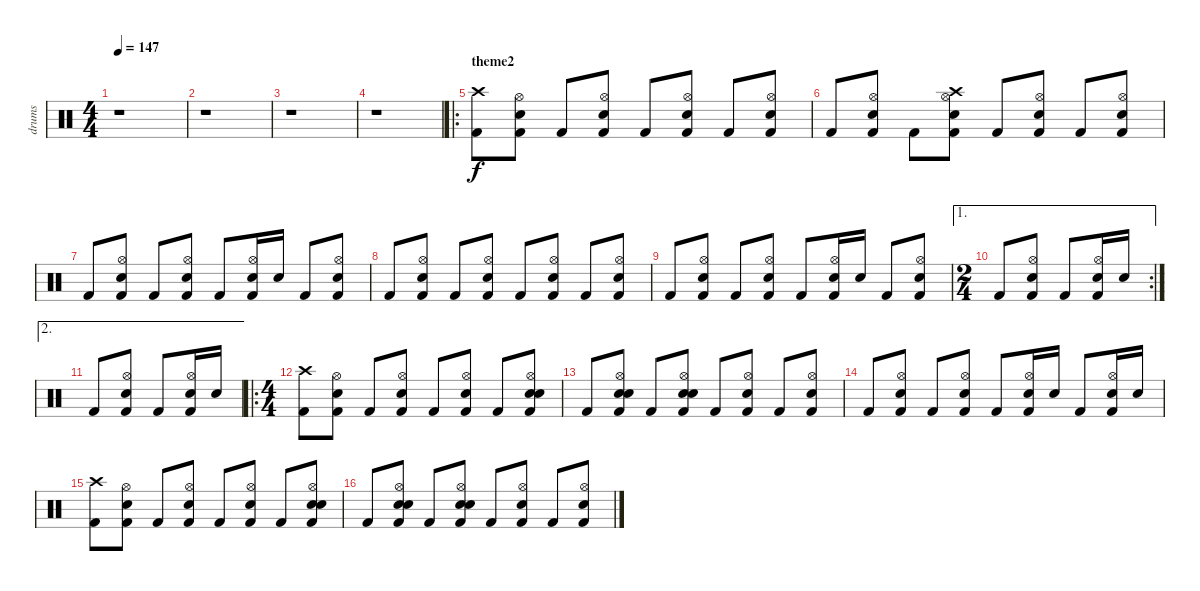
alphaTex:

\track ("drums" "drums") {instrument percussion}
\staff {score}
\articulation defaults
\ts (4 4)
\tempo 147
\clef neutral
\ks c
r.1{dy f} |
r.1 |
r.1 |
r.1 |
\ro
\section ("" "theme2")
("Crash high (hit)" "Kick (hit) 2").8{volume 16} ("Hi-Hat (open)" "Snare (hit) 2" "Kick (hit) 2").8 "Kick (hit) 2".8 ("Hi-Hat (open)" "Snare (hit) 2" "Kick (hit) 2").8 "Kick (hit) 2".8 ("Hi-Hat (open)" "Snare (hit) 2" "Kick (hit) 2").8 "Kick (hit) 2".8 ("Hi-Hat (open)" "Snare (hit) 2" "Kick (hit) 2").8 |
"Kick (hit) 2".8 ("Hi-Hat (open)" "Snare (hit) 2" "Kick (hit) 2").8 "Kick (hit) 2".8 ("Hi-Hat (open)" "Crash high (hit)" "Snare (hit) 2" "Kick (hit) 2").8 "Kick (hit) 2".8 ("Hi-Hat (open)" "Snare (hit) 2" "Kick (hit) 2").8 "Kick (hit) 2".8 ("Hi-Hat (open)" "Snare (hit) 2" "Kick (hit) 2").8 |
"Kick (hit) 2".8 ("Hi-Hat (open)" "Snare (hit) 2" "Kick (hit) 2").8 "Kick (hit) 2".8 ("Hi-Hat (open)" "Snare (hit) 2" "Kick (hit) 2").8 "Kick (hit) 2".8 ("Hi-Hat (open)" "Snare (hit) 2" "Kick (hit) 2").16 "Snare (hit) 2".16 "Kick (hit) 2".8 ("Hi-Hat (open)" "Snare (hit) 2" "Kick (hit) 2").8 |
"Kick (hit) 2".8 ("Hi-Hat (open)" "Snare (hit) 2" "Kick (hit) 2").8 "Kick (hit) 2".8 ("Hi-Hat (open)" "Snare (hit) 2" "Kick (hit) 2").8 "Kick (hit) 2".8 ("Hi-Hat (open)" "Snare (hit) 2" "Kick (hit) 2").8 "Kick (hit) 2".8 ("Hi-Hat (open)" "Snare (hit) 2" "Kick (hit) 2").8 |
"Kick (hit) 2".8 ("Hi-Hat (open)" "Snare (hit) 2" "Kick (hit) 2").8 "Kick (hit) 2".8 ("Hi-Hat (open)" "Snare (hit) 2" "Kick (hit) 2").8 "Kick (hit) 2".8 ("Hi-Hat (open)" "Snare (hit) 2" "Kick (hit) 2").16 "Snare (hit) 2".16 "Kick (hit) 2".8 ("Hi-Hat (open)" "Snare (hit) 2" "Kick (hit) 2").8 |
\ae 1
\rc 2
\ts (2 4)
"Kick (hit) 2".8 ("Hi-Hat (open)" "Snare (hit) 2" "Kick (hit) 2").8 "Kick (hit) 2".8 ("Hi-Hat (open)" "Snare (hit) 2" "Kick (hit) 2").16 "Snare (hit) 2".16 |
\ae 2 "Kick (hit) 2".8
("Hi-Hat (open)" "Snare (hit) 2" "Kick (hit) 2").8 "Kick (hit) 2".8 ("Hi-Hat (open)" "Snare (hit) 2" "Kick (hit) 2").16 "Snare (hit) 2".16 |
\ro
\ts (4 4)
("Crash high (hit)" "Kick (hit) 2").8 ("Hi-Hat (open)" "Snare (hit) 2" "Kick (hit) 2").8 "Kick (hit) 2".8 ("Hi-Hat (open)" "Snare (hit) 2" "Kick (hit) 2").8 "Kick (hit) 2".8 ("Hi-Hat (open)" "Snare (hit) 2" "Kick (hit) 2").8 "Kick (hit) 2".8 ("Hi-Hat (open)" "Hand Clap (hit)" "Snare (hit) 2" "Kick (hit) 2").8 |
"Kick (hit) 2".8 ("Hi-Hat (open)" "Hand Clap (hit)" "Snare (hit) 2" "Kick (hit) 2").8 "Kick (hit) 2".8 ("Hi-Hat (open)" "Hand Clap (hit)" "Snare (hit) 2" "Kick (hit) 2").8 "Kick (hit) 2".8 ("Hi-Hat (open)" "Snare (hit) 2" "Kick (hit) 2").8 "Kick (hit) 2".8 ("Hi-Hat (open)" "Snare (hit) 2" "Kick (hit) 2").8 |
"Kick (hit) 2".8 ("Hi-Hat (open)" "Snare (hit) 2" "Kick (hit) 2").8 "Kick (hit) 2".8 ("Hi-Hat (open)" "Snare (hit) 2" "Kick (hit) 2").8 "Kick (hit) 2".8 ("Hi-Hat (open)" "Snare (hit) 2" "Kick (hit) 2").16 "Snare (hit) 2".16 "Kick (hit) 2".8 ("Hi-Hat (open)" "Snare (hit) 2" "Kick (hit) 2").16 "Snare (hit) 2".16 |
("Crash high (hit)" "Kick (hit) 2").8 ("Hi-Hat (open)" "Snare (hit) 2" "Kick (hit) 2").8 "Kick (hit) 2".8 ("Hi-Hat (open)" "Snare (hit) 2" "Kick (hit) 2").8 "Kick (hit) 2".8 ("Hi-Hat (open)" "Snare (hit) 2" "Kick (hit) 2").8 "Kick (hit) 2".8 ("Hi-Hat (open)" "Hand Clap (hit)" "Snare (hit) 2" "Kick (hit) 2").8 |
"Kick (hit) 2".8 ("Hi-Hat (open)" "Hand Clap (hit)" "Snare (hit) 2" "Kick (hit) 2").8 "Kick (hit) 2".8 ("Hi-Hat (open)" "Hand Clap (hit)" "Snare (hit) 2" "Kick (hit) 2").8 "Kick (hit) 2".8 ("Hi-Hat (open)" "Snare (hit) 2" "Kick (hit) 2").8 "Kick (hit) 2".8 ("Hi-Hat (open)" "Snare (hit) 2" "Kick (hit) 2").8
